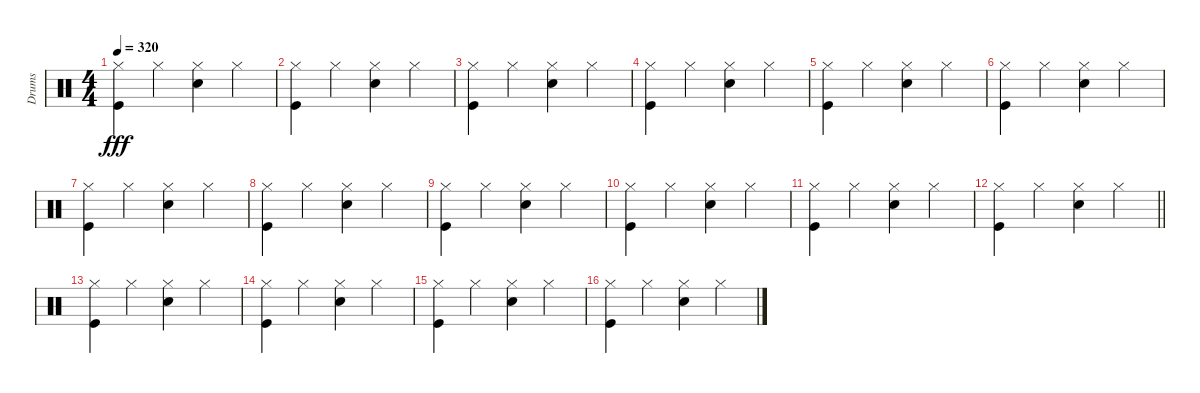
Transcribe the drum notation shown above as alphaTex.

\track ("Drums" "Drums") {instrument percussion}
\staff {score}
\articulation defaults
\ts (4 4)
\tempo 320
\clef neutral
\ks c
("Hi-Hat (closed)" "Kick (hit)").4{dy fff} "Hi-Hat (closed)".4 ("Hi-Hat (closed)" "Snare (hit) 2").4 "Hi-Hat (closed)".4 |
("Hi-Hat (closed)" "Kick (hit)").4 "Hi-Hat (closed)".4 ("Hi-Hat (closed)" "Snare (hit) 2").4 "Hi-Hat (closed)".4 |
("Hi-Hat (closed)" "Kick (hit)").4 "Hi-Hat (closed)".4 ("Hi-Hat (closed)" "Snare (hit) 2").4 "Hi-Hat (closed)".4 |
("Hi-Hat (closed)" "Kick (hit)").4 "Hi-Hat (closed)".4 ("Hi-Hat (closed)" "Snare (hit) 2").4 "Hi-Hat (closed)".4 |
("Hi-Hat (closed)" "Kick (hit)").4 "Hi-Hat (closed)".4 ("Hi-Hat (closed)" "Snare (hit) 2").4 "Hi-Hat (closed)".4 |
("Hi-Hat (closed)" "Kick (hit)").4 "Hi-Hat (closed)".4 ("Hi-Hat (closed)" "Snare (hit) 2").4 "Hi-Hat (closed)".4 |
("Hi-Hat (closed)" "Kick (hit)").4 "Hi-Hat (closed)".4 ("Hi-Hat (closed)" "Snare (hit) 2").4 "Hi-Hat (closed)".4 |
("Hi-Hat (closed)" "Kick (hit)").4 "Hi-Hat (closed)".4 ("Hi-Hat (closed)" "Snare (hit) 2").4 "Hi-Hat (closed)".4 |
("Hi-Hat (closed)" "Kick (hit)").4 "Hi-Hat (closed)".4 ("Hi-Hat (closed)" "Snare (hit) 2").4 "Hi-Hat (closed)".4 |
("Hi-Hat (closed)" "Kick (hit)").4 "Hi-Hat (closed)".4 ("Hi-Hat (closed)" "Snare (hit) 2").4 "Hi-Hat (closed)".4 |
("Hi-Hat (closed)" "Kick (hit)").4 "Hi-Hat (closed)".4 ("Hi-Hat (closed)" "Snare (hit) 2").4 "Hi-Hat (closed)".4 |
\barLineRight lightlight
("Hi-Hat (closed)" "Kick (hit)").4 "Hi-Hat (closed)".4 ("Hi-Hat (closed)" "Snare (hit) 2").4 "Hi-Hat (closed)".4 |
("Hi-Hat (closed)" "Kick (hit)").4 "Hi-Hat (closed)".4 ("Hi-Hat (closed)" "Snare (hit) 2").4 "Hi-Hat (closed)".4 |
("Hi-Hat (closed)" "Kick (hit)").4 "Hi-Hat (closed)".4 ("Hi-Hat (closed)" "Snare (hit) 2").4 "Hi-Hat (closed)".4 |
("Hi-Hat (closed)" "Kick (hit)").4 "Hi-Hat (closed)".4 ("Hi-Hat (closed)" "Snare (hit) 2").4 "Hi-Hat (closed)".4 |
("Hi-Hat (closed)" "Kick (hit)").4 "Hi-Hat (closed)".4 ("Hi-Hat (closed)" "Snare (hit) 2").4 "Hi-Hat (closed)".4
